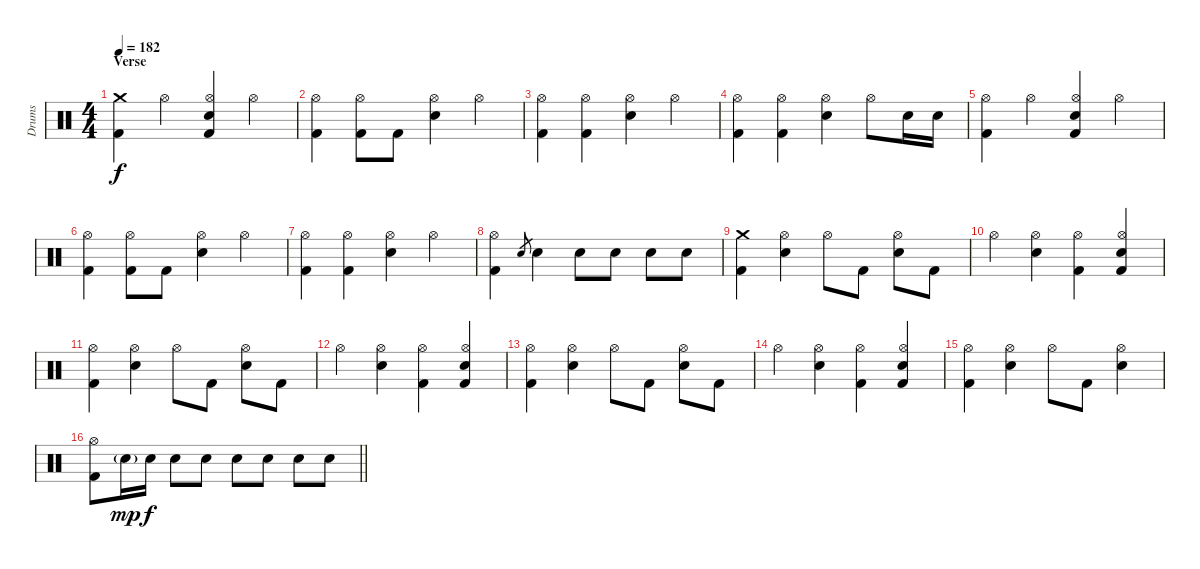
\track ("Drums" "Drums") {instrument percussion}
\staff {score}
\articulation defaults
\ts (4 4)
\section ("" "Verse")
\tempo 182
\clef neutral
\ks c
("Crash medium (hit)" "Kick (hit) 2").4{dy f} "Hi-Hat (open)".4 ("Hi-Hat (open)" "Electric Snare (hit)" "Kick (hit) 2").4 "Hi-Hat (open)".4 |
("Hi-Hat (open)" "Kick (hit) 2").4 ("Hi-Hat (open)" "Kick (hit) 2").8 "Kick (hit) 2".8 ("Hi-Hat (open)" "Electric Snare (hit)").4 "Hi-Hat (open)".4 |
("Hi-Hat (open)" "Kick (hit) 2").4 ("Hi-Hat (open)" "Kick (hit) 2").4 ("Hi-Hat (open)" "Electric Snare (hit)").4 "Hi-Hat (open)".4 |
("Hi-Hat (open)" "Kick (hit) 2").4 ("Hi-Hat (open)" "Kick (hit) 2").4 ("Hi-Hat (open)" "Electric Snare (hit)").4 "Hi-Hat (open)".8 "Electric Snare (hit)".16 "Electric Snare (hit)".16 |
("Hi-Hat (open)" "Kick (hit) 2").4 "Hi-Hat (open)".4 ("Hi-Hat (open)" "Electric Snare (hit)" "Kick (hit) 2").4 "Hi-Hat (open)".4 |
("Hi-Hat (open)" "Kick (hit) 2").4 ("Hi-Hat (open)" "Kick (hit) 2").8 "Kick (hit) 2".8 ("Hi-Hat (open)" "Electric Snare (hit)").4 "Hi-Hat (open)".4 |
("Hi-Hat (open)" "Kick (hit) 2").4 ("Hi-Hat (open)" "Kick (hit) 2").4 ("Hi-Hat (open)" "Electric Snare (hit)").4 "Hi-Hat (open)".4 |
("Hi-Hat (open)" "Kick (hit) 2").4 "Electric Snare (hit)".8{gr} "Electric Snare (hit)".4 "Electric Snare (hit)".8 "Electric Snare (hit)".8 "Electric Snare (hit)".8 "Electric Snare (hit)".8 |
("Crash medium (hit)" "Kick (hit) 2").4 ("Hi-Hat (open)" "Electric Snare (hit)").4 "Hi-Hat (open)".8 "Kick (hit) 2".8 ("Hi-Hat (open)" "Electric Snare (hit)").8 "Kick (hit) 2".8 |
"Hi-Hat (open)".4 ("Hi-Hat (open)" "Electric Snare (hit)").4 ("Hi-Hat (open)" "Kick (hit) 2").4 ("Hi-Hat (open)" "Electric Snare (hit)" "Kick (hit) 2").4 |
("Hi-Hat (open)" "Kick (hit) 2").4 ("Hi-Hat (open)" "Electric Snare (hit)").4 "Hi-Hat (open)".8 "Kick (hit) 2".8 ("Hi-Hat (open)" "Electric Snare (hit)").8 "Kick (hit) 2".8 |
"Hi-Hat (open)".4 ("Hi-Hat (open)" "Electric Snare (hit)").4 ("Hi-Hat (open)" "Kick (hit) 2").4 ("Hi-Hat (open)" "Electric Snare (hit)" "Kick (hit) 2").4 |
("Hi-Hat (open)" "Kick (hit) 2").4 ("Hi-Hat (open)" "Electric Snare (hit)").4 "Hi-Hat (open)".8 "Kick (hit) 2".8 ("Hi-Hat (open)" "Electric Snare (hit)").8 "Kick (hit) 2".8 |
"Hi-Hat (open)".4 ("Hi-Hat (open)" "Electric Snare (hit)").4 ("Hi-Hat (open)" "Kick (hit) 2").4 ("Hi-Hat (open)" "Electric Snare (hit)" "Kick (hit) 2").4 |
("Hi-Hat (open)" "Kick (hit) 2").4 ("Hi-Hat (open)" "Electric Snare (hit)").4 "Hi-Hat (open)".8 "Kick (hit) 2".8 ("Hi-Hat (open)" "Electric Snare (hit)").4 |
\barLineRight lightlight
("Hi-Hat (open)" "Kick (hit) 2").8 "Electric Snare (hit)"{g}.16{dy mp} "Electric Snare (hit)".16{dy f} "Electric Snare (hit)".8 "Electric Snare (hit)".8 "Electric Snare (hit)".8 "Electric Snare (hit)".8 "Electric Snare (hit)".8 "Electric Snare (hit)".8
